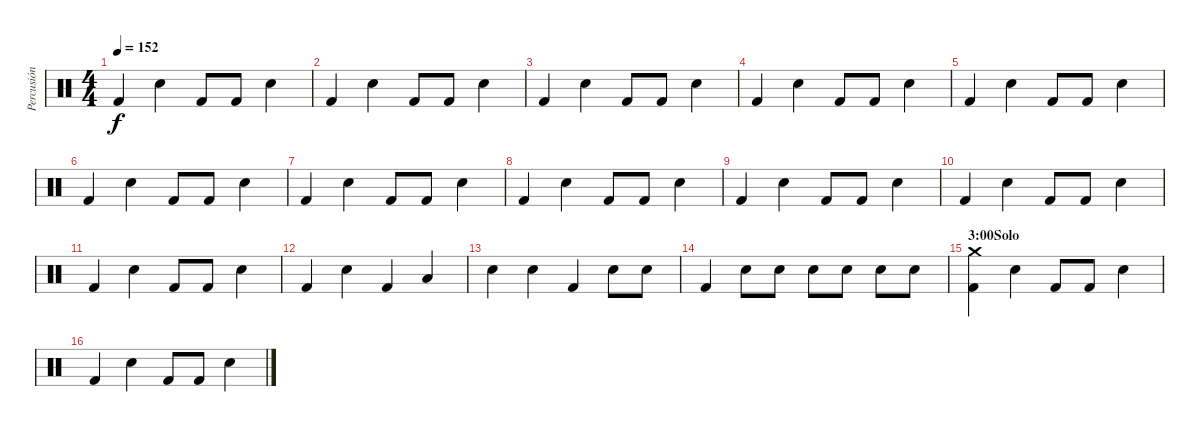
\track ("Percusión" "Percusión") {instrument percussion}
\staff {score}
\articulation defaults
\ts (4 4)
\tempo 152
\clef neutral
\ks c "Kick (hit) 2".4{dy f} "Snare (hit) 2".4 "Kick (hit) 2".8 "Kick (hit) 2".8 "Snare (hit) 2".4
|
"Kick (hit) 2".4 "Snare (hit) 2".4 "Kick (hit) 2".8 "Kick (hit) 2".8 "Snare (hit) 2".4 |
"Kick (hit) 2".4 "Snare (hit) 2".4 "Kick (hit) 2".8 "Kick (hit) 2".8 "Snare (hit) 2".4 |
"Kick (hit) 2".4 "Snare (hit) 2".4 "Kick (hit) 2".8 "Kick (hit) 2".8 "Snare (hit) 2".4 |
"Kick (hit) 2".4 "Snare (hit) 2".4 "Kick (hit) 2".8 "Kick (hit) 2".8 "Snare (hit) 2".4 |
"Kick (hit) 2".4 "Snare (hit) 2".4 "Kick (hit) 2".8 "Kick (hit) 2".8 "Snare (hit) 2".4 |
"Kick (hit) 2".4 "Snare (hit) 2".4 "Kick (hit) 2".8 "Kick (hit) 2".8 "Snare (hit) 2".4 |
"Kick (hit) 2".4 "Snare (hit) 2".4 "Kick (hit) 2".8 "Kick (hit) 2".8 "Snare (hit) 2".4 |
"Kick (hit) 2".4 "Snare (hit) 2".4 "Kick (hit) 2".8 "Kick (hit) 2".8 "Snare (hit) 2".4 |
"Kick (hit) 2".4 "Snare (hit) 2".4 "Kick (hit) 2".8 "Kick (hit) 2".8 "Snare (hit) 2".4 |
"Kick (hit) 2".4 "Snare (hit) 2".4 "Kick (hit) 2".8 "Kick (hit) 2".8 "Snare (hit) 2".4 |
"Kick (hit) 2".4 "Snare (hit) 2".4 "Kick (hit) 2".4 "Low Tom (hit)".4 |
"Snare (hit) 2".4 "Snare (hit) 2".4 "Kick (hit) 2".4 "Snare (hit) 2".8 "Snare (hit) 2".8 |
"Kick (hit) 2".4 "Snare (hit) 2".8 "Snare (hit) 2".8 "Snare (hit) 2".8 "Snare (hit) 2".8 "Snare (hit) 2".8 "Snare (hit) 2".8 |
\section ("" "3:00Solo")
("Kick (hit) 2" "Crash medium (hit)").4 "Snare (hit) 2".4 "Kick (hit) 2".8 "Kick (hit) 2".8 "Snare (hit) 2".4 |
"Kick (hit) 2".4 "Snare (hit) 2".4 "Kick (hit) 2".8 "Kick (hit) 2".8 "Snare (hit) 2".4
